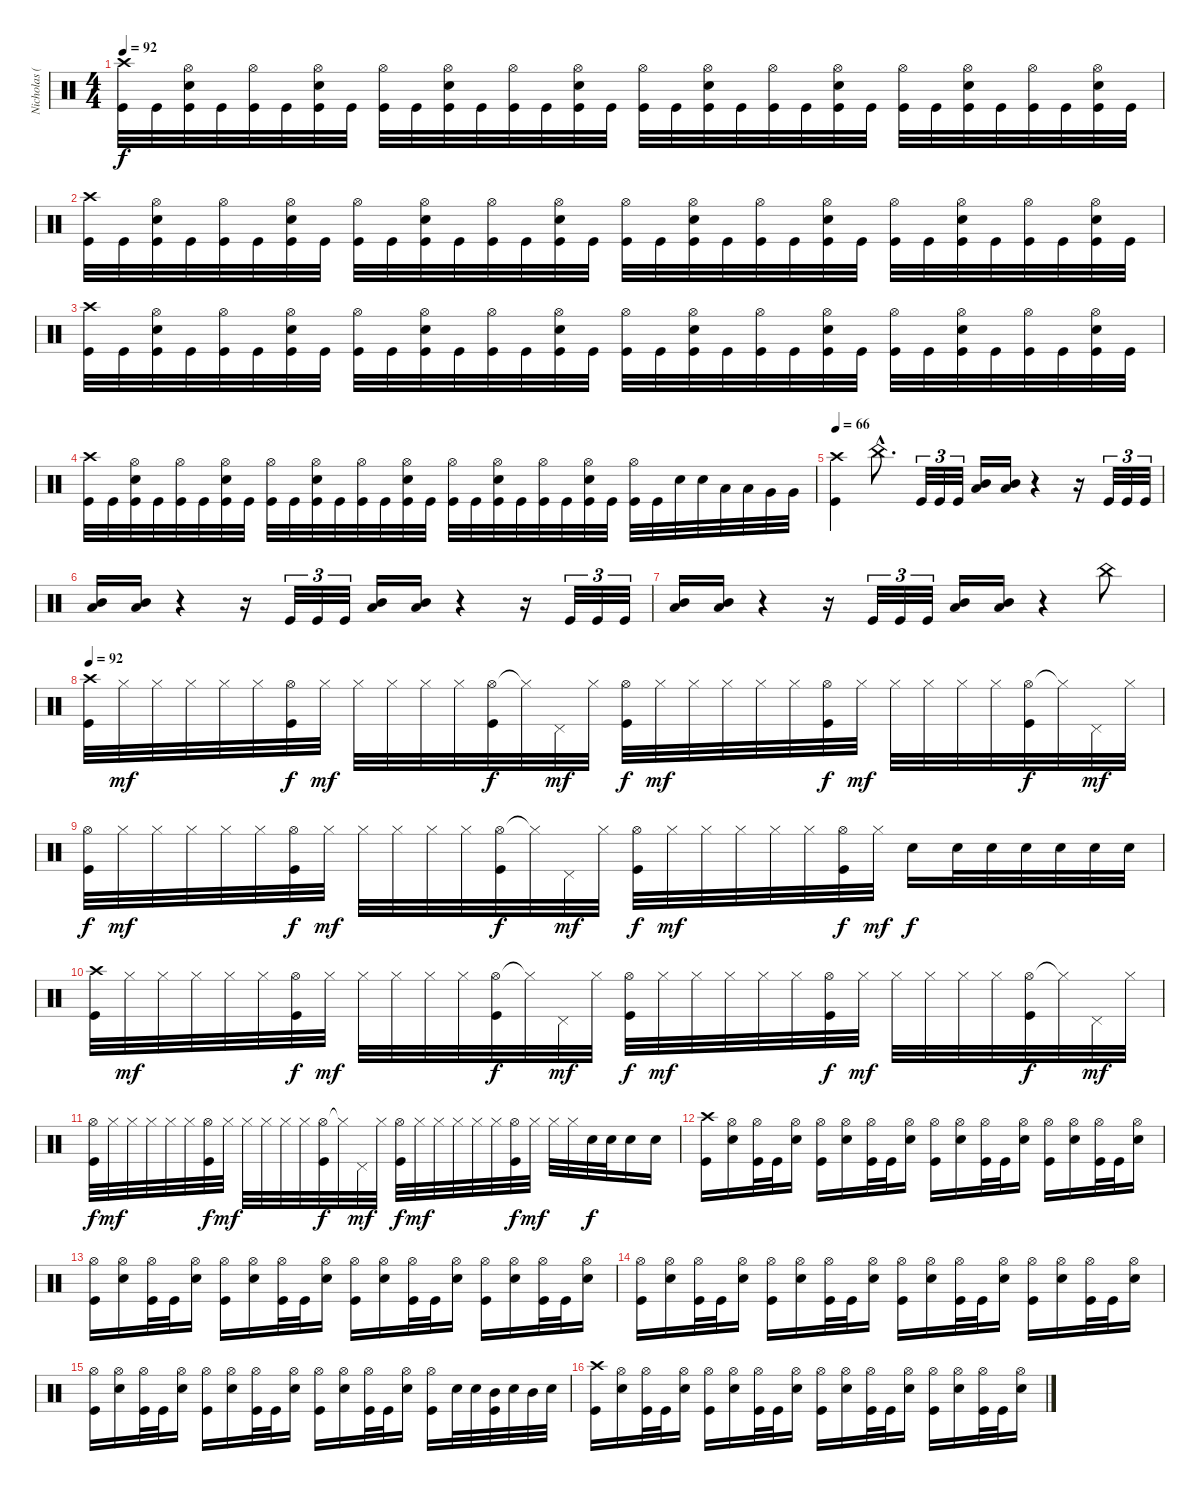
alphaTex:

\track ("Nicholas (Drums)" "Nicholas (") {instrument percussion}
\staff {score}
\articulation defaults
\ts (4 4)
\tempo 92
\clef neutral
\ks c
("Crash high (hit)" "Kick (hit)").32{dy f} "Kick (hit)".32 ("Hi-Hat (open)" "Electric Snare (hit)" "Kick (hit)").32 "Kick (hit)".32 ("Hi-Hat (open)" "Kick (hit)").32 "Kick (hit)".32 ("Hi-Hat (open)" "Electric Snare (hit)" "Kick (hit)").32 "Kick (hit)".32 ("Hi-Hat (open)" "Kick (hit)").32 "Kick (hit)".32 ("Hi-Hat (open)" "Electric Snare (hit)" "Kick (hit)").32 "Kick (hit)".32 ("Hi-Hat (open)" "Kick (hit)").32 "Kick (hit)".32 ("Hi-Hat (open)" "Electric Snare (hit)" "Kick (hit)").32 "Kick (hit)".32 ("Hi-Hat (open)" "Kick (hit)").32 "Kick (hit)".32 ("Hi-Hat (open)" "Electric Snare (hit)" "Kick (hit)").32 "Kick (hit)".32 ("Hi-Hat (open)" "Kick (hit)").32 "Kick (hit)".32 ("Hi-Hat (open)" "Electric Snare (hit)" "Kick (hit)").32 "Kick (hit)".32 ("Hi-Hat (open)" "Kick (hit)").32 "Kick (hit)".32 ("Hi-Hat (open)" "Electric Snare (hit)" "Kick (hit)").32 "Kick (hit)".32 ("Hi-Hat (open)" "Kick (hit)").32 "Kick (hit)".32 ("Hi-Hat (open)" "Electric Snare (hit)" "Kick (hit)").32 "Kick (hit)".32 |
("Crash high (hit)" "Kick (hit)").32 "Kick (hit)".32 ("Hi-Hat (open)" "Electric Snare (hit)" "Kick (hit)").32 "Kick (hit)".32 ("Hi-Hat (open)" "Kick (hit)").32 "Kick (hit)".32 ("Hi-Hat (open)" "Electric Snare (hit)" "Kick (hit)").32 "Kick (hit)".32 ("Hi-Hat (open)" "Kick (hit)").32 "Kick (hit)".32 ("Hi-Hat (open)" "Electric Snare (hit)" "Kick (hit)").32 "Kick (hit)".32 ("Hi-Hat (open)" "Kick (hit)").32 "Kick (hit)".32 ("Hi-Hat (open)" "Electric Snare (hit)" "Kick (hit)").32 "Kick (hit)".32 ("Hi-Hat (open)" "Kick (hit)").32 "Kick (hit)".32 ("Hi-Hat (open)" "Electric Snare (hit)" "Kick (hit)").32 "Kick (hit)".32 ("Hi-Hat (open)" "Kick (hit)").32 "Kick (hit)".32 ("Hi-Hat (open)" "Electric Snare (hit)" "Kick (hit)").32 "Kick (hit)".32 ("Hi-Hat (open)" "Kick (hit)").32 "Kick (hit)".32 ("Hi-Hat (open)" "Electric Snare (hit)" "Kick (hit)").32 "Kick (hit)".32 ("Hi-Hat (open)" "Kick (hit)").32 "Kick (hit)".32 ("Hi-Hat (open)" "Electric Snare (hit)" "Kick (hit)").32 "Kick (hit)".32 |
("Crash high (hit)" "Kick (hit)").32 "Kick (hit)".32 ("Hi-Hat (open)" "Electric Snare (hit)" "Kick (hit)").32 "Kick (hit)".32 ("Hi-Hat (open)" "Kick (hit)").32 "Kick (hit)".32 ("Hi-Hat (open)" "Electric Snare (hit)" "Kick (hit)").32 "Kick (hit)".32 ("Hi-Hat (open)" "Kick (hit)").32 "Kick (hit)".32 ("Hi-Hat (open)" "Electric Snare (hit)" "Kick (hit)").32 "Kick (hit)".32 ("Hi-Hat (open)" "Kick (hit)").32 "Kick (hit)".32 ("Hi-Hat (open)" "Electric Snare (hit)" "Kick (hit)").32 "Kick (hit)".32 ("Hi-Hat (open)" "Kick (hit)").32 "Kick (hit)".32 ("Hi-Hat (open)" "Electric Snare (hit)" "Kick (hit)").32 "Kick (hit)".32 ("Hi-Hat (open)" "Kick (hit)").32 "Kick (hit)".32 ("Hi-Hat (open)" "Electric Snare (hit)" "Kick (hit)").32 "Kick (hit)".32 ("Hi-Hat (open)" "Kick (hit)").32 "Kick (hit)".32 ("Hi-Hat (open)" "Electric Snare (hit)" "Kick (hit)").32 "Kick (hit)".32 ("Hi-Hat (open)" "Kick (hit)").32 "Kick (hit)".32 ("Hi-Hat (open)" "Electric Snare (hit)" "Kick (hit)").32 "Kick (hit)".32 |
("Crash high (hit)" "Kick (hit)").32 "Kick (hit)".32 ("Hi-Hat (open)" "Electric Snare (hit)" "Kick (hit)").32 "Kick (hit)".32 ("Hi-Hat (open)" "Kick (hit)").32 "Kick (hit)".32 ("Hi-Hat (open)" "Electric Snare (hit)" "Kick (hit)").32 "Kick (hit)".32 ("Hi-Hat (open)" "Kick (hit)").32 "Kick (hit)".32 ("Hi-Hat (open)" "Electric Snare (hit)" "Kick (hit)").32 "Kick (hit)".32 ("Hi-Hat (open)" "Kick (hit)").32 "Kick (hit)".32 ("Hi-Hat (open)" "Electric Snare (hit)" "Kick (hit)").32 "Kick (hit)".32 ("Hi-Hat (open)" "Kick (hit)").32 "Kick (hit)".32 ("Hi-Hat (open)" "Electric Snare (hit)" "Kick (hit)").32 "Kick (hit)".32 ("Hi-Hat (open)" "Kick (hit)").32 "Kick (hit)".32 ("Hi-Hat (open)" "Electric Snare (hit)" "Kick (hit)").32 "Kick (hit)".32 ("Hi-Hat (open)" "Kick (hit)").32 "Kick (hit)".32 "Electric Snare (hit)".32 "Electric Snare (hit)".32 "Low Tom (hit)".32 "Low Tom (hit)".32 "Very Low Tom (hit)".32 "Very Low Tom (hit)".32 |
\tempo 66
("Crash high (hit)" "Kick (hit)").4 "China (hit)"{hac}.8{d} "Kick (hit)".32{tu (3 2)} "Kick (hit)".32{tu (3 2)} "Kick (hit)".32{tu (3 2)} ("Mid Tom (hit)" "Low Tom (hit)").16{bu 60} ("Mid Tom (hit)" "Low Tom (hit)").16{bu 60} r.4 r.16 "Kick (hit)".32{tu (3 2)} "Kick (hit)".32{tu (3 2)} "Kick (hit)".32{tu (3 2)} |
("Mid Tom (hit)" "Low Tom (hit)").16{bu 60} ("Mid Tom (hit)" "Low Tom (hit)").16{bu 60} r.4 r.16 "Kick (hit)".32{tu (3 2)} "Kick (hit)".32{tu (3 2)} "Kick (hit)".32{tu (3 2)} ("Mid Tom (hit)" "Low Tom (hit)").16{bu 60} ("Mid Tom (hit)" "Low Tom (hit)").16{bu 60} r.4 r.16 "Kick (hit)".32{tu (3 2)} "Kick (hit)".32{tu (3 2)} "Kick (hit)".32{tu (3 2)} |
("Mid Tom (hit)" "Low Tom (hit)").16{bu 60} ("Mid Tom (hit)" "Low Tom (hit)").16{bu 60} r.4 r.16 "Kick (hit)".32{tu (3 2)} "Kick (hit)".32{tu (3 2)} "Kick (hit)".32{tu (3 2)} ("Mid Tom (hit)" "Low Tom (hit)").16{bu 60} ("Mid Tom (hit)" "Low Tom (hit)").16{bu 60} r.4 "China (hit)".8 |
\tempo 92
("Crash high (hit)" "Kick (hit)").32 "Hi-Hat (closed)".32{dy mf} "Hi-Hat (closed)".32 "Hi-Hat (closed)".32 "Hi-Hat (closed)".32 "Hi-Hat (closed)".32 ("Hi-Hat (open)" "Kick (hit)").32{dy f} "Hi-Hat (closed)".32{dy mf} "Hi-Hat (closed)".32 "Hi-Hat (closed)".32 "Hi-Hat (closed)".32 "Hi-Hat (closed)".32 ("Hi-Hat (open)" "Kick (hit)").32{dy f} "Hi-Hat (closed)"{t}.32 "Pedal Hi-Hat (hit)".32{dy mf} "Hi-Hat (closed)".32 ("Hi-Hat (open)" "Kick (hit)").32{dy f} "Hi-Hat (closed)".32{dy mf} "Hi-Hat (closed)".32 "Hi-Hat (closed)".32 "Hi-Hat (closed)".32 "Hi-Hat (closed)".32 ("Hi-Hat (open)" "Kick (hit)").32{dy f} "Hi-Hat (closed)".32{dy mf} "Hi-Hat (closed)".32 "Hi-Hat (closed)".32 "Hi-Hat (closed)".32 "Hi-Hat (closed)".32 ("Hi-Hat (open)" "Kick (hit)").32{dy f} "Hi-Hat (closed)"{t}.32 "Pedal Hi-Hat (hit)".32{dy mf} "Hi-Hat (closed)".32 |
("Hi-Hat (open)" "Kick (hit)").32{dy f} "Hi-Hat (closed)".32{dy mf} "Hi-Hat (closed)".32 "Hi-Hat (closed)".32 "Hi-Hat (closed)".32 "Hi-Hat (closed)".32 ("Hi-Hat (open)" "Kick (hit)").32{dy f} "Hi-Hat (closed)".32{dy mf} "Hi-Hat (closed)".32 "Hi-Hat (closed)".32 "Hi-Hat (closed)".32 "Hi-Hat (closed)".32 ("Hi-Hat (open)" "Kick (hit)").32{dy f} "Hi-Hat (closed)"{t}.32 "Pedal Hi-Hat (hit)".32{dy mf} "Hi-Hat (closed)".32 ("Hi-Hat (open)" "Kick (hit)").32{dy f} "Hi-Hat (closed)".32{dy mf} "Hi-Hat (closed)".32 "Hi-Hat (closed)".32 "Hi-Hat (closed)".32 "Hi-Hat (closed)".32 ("Hi-Hat (open)" "Kick (hit)").32{dy f} "Hi-Hat (closed)".32{dy mf} "Electric Snare (hit)".16{dy f} "Electric Snare (hit)".32 "Electric Snare (hit)".32 "Electric Snare (hit)".32 "Electric Snare (hit)".32 "Electric Snare (hit)".32 "Electric Snare (hit)".32 |
("Crash high (hit)" "Kick (hit)").32 "Hi-Hat (closed)".32{dy mf} "Hi-Hat (closed)".32 "Hi-Hat (closed)".32 "Hi-Hat (closed)".32 "Hi-Hat (closed)".32 ("Hi-Hat (open)" "Kick (hit)").32{dy f} "Hi-Hat (closed)".32{dy mf} "Hi-Hat (closed)".32 "Hi-Hat (closed)".32 "Hi-Hat (closed)".32 "Hi-Hat (closed)".32 ("Hi-Hat (open)" "Kick (hit)").32{dy f} "Hi-Hat (closed)"{t}.32 "Pedal Hi-Hat (hit)".32{dy mf} "Hi-Hat (closed)".32 ("Hi-Hat (open)" "Kick (hit)").32{dy f} "Hi-Hat (closed)".32{dy mf} "Hi-Hat (closed)".32 "Hi-Hat (closed)".32 "Hi-Hat (closed)".32 "Hi-Hat (closed)".32 ("Hi-Hat (open)" "Kick (hit)").32{dy f} "Hi-Hat (closed)".32{dy mf} "Hi-Hat (closed)".32 "Hi-Hat (closed)".32 "Hi-Hat (closed)".32 "Hi-Hat (closed)".32 ("Hi-Hat (open)" "Kick (hit)").32{dy f} "Hi-Hat (closed)"{t}.32 "Pedal Hi-Hat (hit)".32{dy mf} "Hi-Hat (closed)".32 |
("Hi-Hat (open)" "Kick (hit)").32{dy f} "Hi-Hat (closed)".32{dy mf} "Hi-Hat (closed)".32 "Hi-Hat (closed)".32 "Hi-Hat (closed)".32 "Hi-Hat (closed)".32 ("Hi-Hat (open)" "Kick (hit)").32{dy f} "Hi-Hat (closed)".32{dy mf} "Hi-Hat (closed)".32 "Hi-Hat (closed)".32 "Hi-Hat (closed)".32 "Hi-Hat (closed)".32 ("Hi-Hat (open)" "Kick (hit)").32{dy f} "Hi-Hat (closed)"{t}.32 "Pedal Hi-Hat (hit)".32{dy mf} "Hi-Hat (closed)".32 ("Hi-Hat (open)" "Kick (hit)").32{dy f} "Hi-Hat (closed)".32{dy mf} "Hi-Hat (closed)".32 "Hi-Hat (closed)".32 "Hi-Hat (closed)".32 "Hi-Hat (closed)".32 ("Hi-Hat (open)" "Kick (hit)").32{dy f} "Hi-Hat (closed)".32{dy mf} "Hi-Hat (closed)".32 "Hi-Hat (closed)".32 "Electric Snare (hit)".32{dy f} "Electric Snare (hit)".32 "Electric Snare (hit)".16 "Electric Snare (hit)".16 |
("Crash high (hit)" "Kick (hit)").16 ("Hi-Hat (open)" "Electric Snare (hit)").16 ("Hi-Hat (open)" "Kick (hit)").32 "Kick (hit)".32 ("Hi-Hat (open)" "Electric Snare (hit)").16 ("Hi-Hat (open)" "Kick (hit)").16 ("Hi-Hat (open)" "Electric Snare (hit)").16 ("Hi-Hat (open)" "Kick (hit)").32 "Kick (hit)".32 ("Hi-Hat (open)" "Electric Snare (hit)").16 ("Hi-Hat (open)" "Kick (hit)").16 ("Hi-Hat (open)" "Electric Snare (hit)").16 ("Hi-Hat (open)" "Kick (hit)").32 "Kick (hit)".32 ("Hi-Hat (open)" "Electric Snare (hit)").16 ("Hi-Hat (open)" "Kick (hit)").16 ("Hi-Hat (open)" "Electric Snare (hit)").16 ("Hi-Hat (open)" "Kick (hit)").32 "Kick (hit)".32 ("Hi-Hat (open)" "Electric Snare (hit)").16 |
("Hi-Hat (open)" "Kick (hit)").16 ("Hi-Hat (open)" "Electric Snare (hit)").16 ("Hi-Hat (open)" "Kick (hit)").32 "Kick (hit)".32 ("Hi-Hat (open)" "Electric Snare (hit)").16 ("Hi-Hat (open)" "Kick (hit)").16 ("Hi-Hat (open)" "Electric Snare (hit)").16 ("Hi-Hat (open)" "Kick (hit)").32 "Kick (hit)".32 ("Hi-Hat (open)" "Electric Snare (hit)").16 ("Hi-Hat (open)" "Kick (hit)").16 ("Hi-Hat (open)" "Electric Snare (hit)").16 ("Hi-Hat (open)" "Kick (hit)").32 "Kick (hit)".32 ("Hi-Hat (open)" "Electric Snare (hit)").16 ("Hi-Hat (open)" "Kick (hit)").16 ("Hi-Hat (open)" "Electric Snare (hit)").16 ("Hi-Hat (open)" "Kick (hit)").32 "Kick (hit)".32 ("Hi-Hat (open)" "Electric Snare (hit)").16 |
("Hi-Hat (open)" "Kick (hit)").16 ("Hi-Hat (open)" "Electric Snare (hit)").16 ("Hi-Hat (open)" "Kick (hit)").32 "Kick (hit)".32 ("Hi-Hat (open)" "Electric Snare (hit)").16 ("Hi-Hat (open)" "Kick (hit)").16 ("Hi-Hat (open)" "Electric Snare (hit)").16 ("Hi-Hat (open)" "Kick (hit)").32 "Kick (hit)".32 ("Hi-Hat (open)" "Electric Snare (hit)").16 ("Hi-Hat (open)" "Kick (hit)").16 ("Hi-Hat (open)" "Electric Snare (hit)").16 ("Hi-Hat (open)" "Kick (hit)").32 "Kick (hit)".32 ("Hi-Hat (open)" "Electric Snare (hit)").16 ("Hi-Hat (open)" "Kick (hit)").16 ("Hi-Hat (open)" "Electric Snare (hit)").16 ("Hi-Hat (open)" "Kick (hit)").32 "Kick (hit)".32 ("Hi-Hat (open)" "Electric Snare (hit)").16 |
("Hi-Hat (open)" "Kick (hit)").16 ("Hi-Hat (open)" "Electric Snare (hit)").16 ("Hi-Hat (open)" "Kick (hit)").32 "Kick (hit)".32 ("Hi-Hat (open)" "Electric Snare (hit)").16 ("Hi-Hat (open)" "Kick (hit)").16 ("Hi-Hat (open)" "Electric Snare (hit)").16 ("Hi-Hat (open)" "Kick (hit)").32 "Kick (hit)".32 ("Hi-Hat (open)" "Electric Snare (hit)").16 ("Hi-Hat (open)" "Kick (hit)").16 ("Hi-Hat (open)" "Electric Snare (hit)").16 ("Hi-Hat (open)" "Kick (hit)").32 "Kick (hit)".32 ("Hi-Hat (open)" "Electric Snare (hit)").16 ("Hi-Hat (open)" "Kick (hit)").16 "Electric Snare (hit)".32 "Electric Snare (hit)".32 ("Mid Tom (hit)" "Kick (hit)").32 "Electric Snare (hit)".32 "Mid Tom (hit)".32 "Electric Snare (hit)".32 |
("Crash high (hit)" "Kick (hit)").16 ("Hi-Hat (open)" "Electric Snare (hit)").16 ("Hi-Hat (open)" "Kick (hit)").32 "Kick (hit)".32 ("Hi-Hat (open)" "Electric Snare (hit)").16 ("Hi-Hat (open)" "Kick (hit)").16 ("Hi-Hat (open)" "Electric Snare (hit)").16 ("Hi-Hat (open)" "Kick (hit)").32 "Kick (hit)".32 ("Hi-Hat (open)" "Electric Snare (hit)").16 ("Hi-Hat (open)" "Kick (hit)").16 ("Hi-Hat (open)" "Electric Snare (hit)").16 ("Hi-Hat (open)" "Kick (hit)").32 "Kick (hit)".32 ("Hi-Hat (open)" "Electric Snare (hit)").16 ("Hi-Hat (open)" "Kick (hit)").16 ("Hi-Hat (open)" "Electric Snare (hit)").16 ("Hi-Hat (open)" "Kick (hit)").32 "Kick (hit)".32 ("Hi-Hat (open)" "Electric Snare (hit)").16
